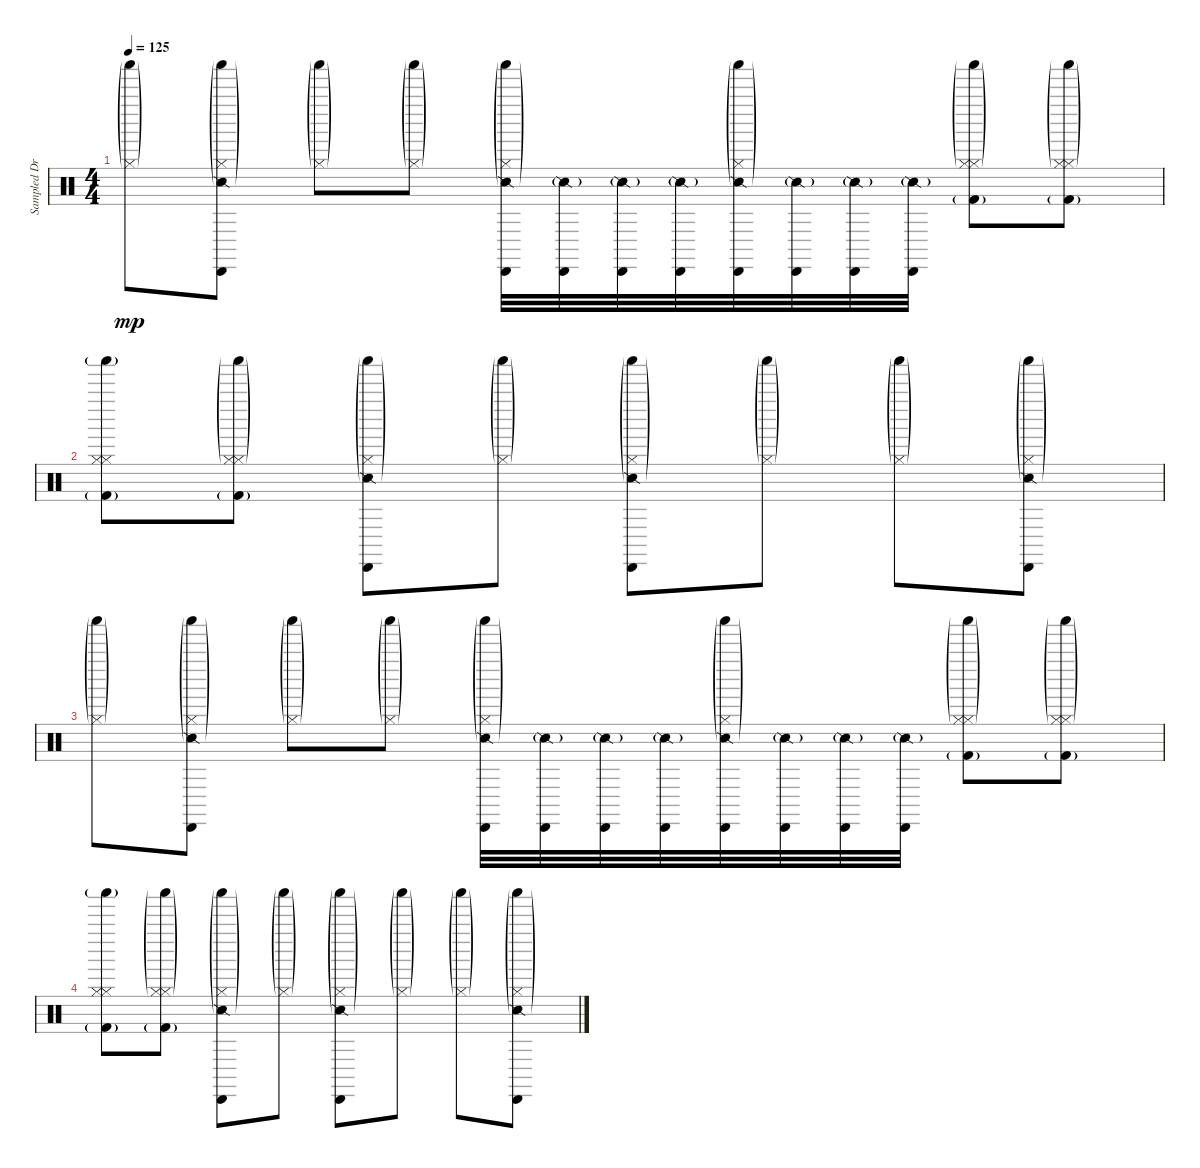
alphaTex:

\track ("Sampled Drums" "Sampled Dr") {instrument percussion}
\staff {score}
\articulation defaults
\ts (4 4)
\section ("" "")
\tempo 125
\clef neutral
\ks c
("Shaker (hit)"{g} "Hi-Hat (closed)"{g}).8{dy mp} ("Shaker (hit)"{g} "Hi-Hat (closed)"{g} "Snare (side stick) 2"{g} "Cabasa (hit)").8 ("Shaker (hit)"{g} "Hi-Hat (closed)"{g}).8 ("Shaker (hit)"{g} "Hi-Hat (closed)"{g}).8 ("Shaker (hit)"{g} "Hi-Hat (closed)"{g} "Snare (side stick) 2"{g} "Cabasa (hit)").32 ("Snare (side stick) 2"{g} "Cabasa (hit)").32 ("Snare (side stick) 2"{g} "Cabasa (hit)").32 ("Snare (side stick) 2"{g} "Cabasa (hit)").32 ("Shaker (hit)"{g} "Hi-Hat (closed)"{g} "Snare (side stick) 2"{g} "Cabasa (hit)").32 ("Snare (side stick) 2"{g} "Cabasa (hit)").32 ("Snare (side stick) 2"{g} "Cabasa (hit)").32 ("Snare (side stick) 2"{g} "Cabasa (hit)").32 ("Shaker (hit)"{g} "Hi-Hat (closed)"{g} "Kick (hit) 2"{g} "Hi-Hat (closed)").8 ("Shaker (hit)"{g} "Hi-Hat (closed)"{g} "Kick (hit) 2"{g} "Hi-Hat (closed)").8 |
("Shaker (hit)"{g} "Hi-Hat (closed)" "Kick (hit) 2"{g} "Hi-Hat (closed)").8 ("Shaker (hit)"{g} "Hi-Hat (closed)"{g} "Kick (hit) 2"{g} "Hi-Hat (closed)").8 ("Shaker (hit)"{g} "Hi-Hat (closed)"{g} "Snare (side stick) 2"{g} "Cabasa (hit)").8 ("Shaker (hit)"{g} "Hi-Hat (closed)"{g}).8 ("Shaker (hit)"{g} "Hi-Hat (closed)"{g} "Snare (side stick) 2"{g} "Cabasa (hit)").8 ("Shaker (hit)"{g} "Hi-Hat (closed)"{g}).8 ("Shaker (hit)"{g} "Hi-Hat (closed)"{g}).8 ("Shaker (hit)"{g} "Hi-Hat (closed)"{g} "Snare (side stick) 2"{g} "Cabasa (hit)").8 |
("Shaker (hit)"{g} "Hi-Hat (closed)"{g}).8 ("Shaker (hit)"{g} "Hi-Hat (closed)"{g} "Snare (side stick) 2"{g} "Cabasa (hit)").8 ("Shaker (hit)"{g} "Hi-Hat (closed)"{g}).8 ("Shaker (hit)"{g} "Hi-Hat (closed)"{g}).8 ("Shaker (hit)"{g} "Hi-Hat (closed)"{g} "Snare (side stick) 2"{g} "Cabasa (hit)").32 ("Snare (side stick) 2"{g} "Cabasa (hit)").32 ("Snare (side stick) 2"{g} "Cabasa (hit)").32 ("Snare (side stick) 2"{g} "Cabasa (hit)").32 ("Shaker (hit)"{g} "Hi-Hat (closed)"{g} "Snare (side stick) 2"{g} "Cabasa (hit)").32 ("Snare (side stick) 2"{g} "Cabasa (hit)").32 ("Snare (side stick) 2"{g} "Cabasa (hit)").32 ("Snare (side stick) 2"{g} "Cabasa (hit)").32 ("Shaker (hit)"{g} "Hi-Hat (closed)"{g} "Kick (hit) 2"{g} "Hi-Hat (closed)").8 ("Shaker (hit)"{g} "Hi-Hat (closed)"{g} "Kick (hit) 2"{g} "Hi-Hat (closed)").8 |
("Shaker (hit)"{g} "Hi-Hat (closed)" "Kick (hit) 2"{g} "Hi-Hat (closed)").8 ("Shaker (hit)"{g} "Hi-Hat (closed)"{g} "Kick (hit) 2"{g} "Hi-Hat (closed)").8 ("Shaker (hit)"{g} "Hi-Hat (closed)"{g} "Snare (side stick) 2"{g} "Cabasa (hit)").8 ("Shaker (hit)"{g} "Hi-Hat (closed)"{g}).8 ("Shaker (hit)"{g} "Hi-Hat (closed)"{g} "Snare (side stick) 2"{g} "Cabasa (hit)").8 ("Shaker (hit)"{g} "Hi-Hat (closed)"{g}).8 ("Shaker (hit)"{g} "Hi-Hat (closed)"{g}).8 ("Shaker (hit)"{g} "Hi-Hat (closed)"{g} "Snare (side stick) 2"{g} "Cabasa (hit)").8
